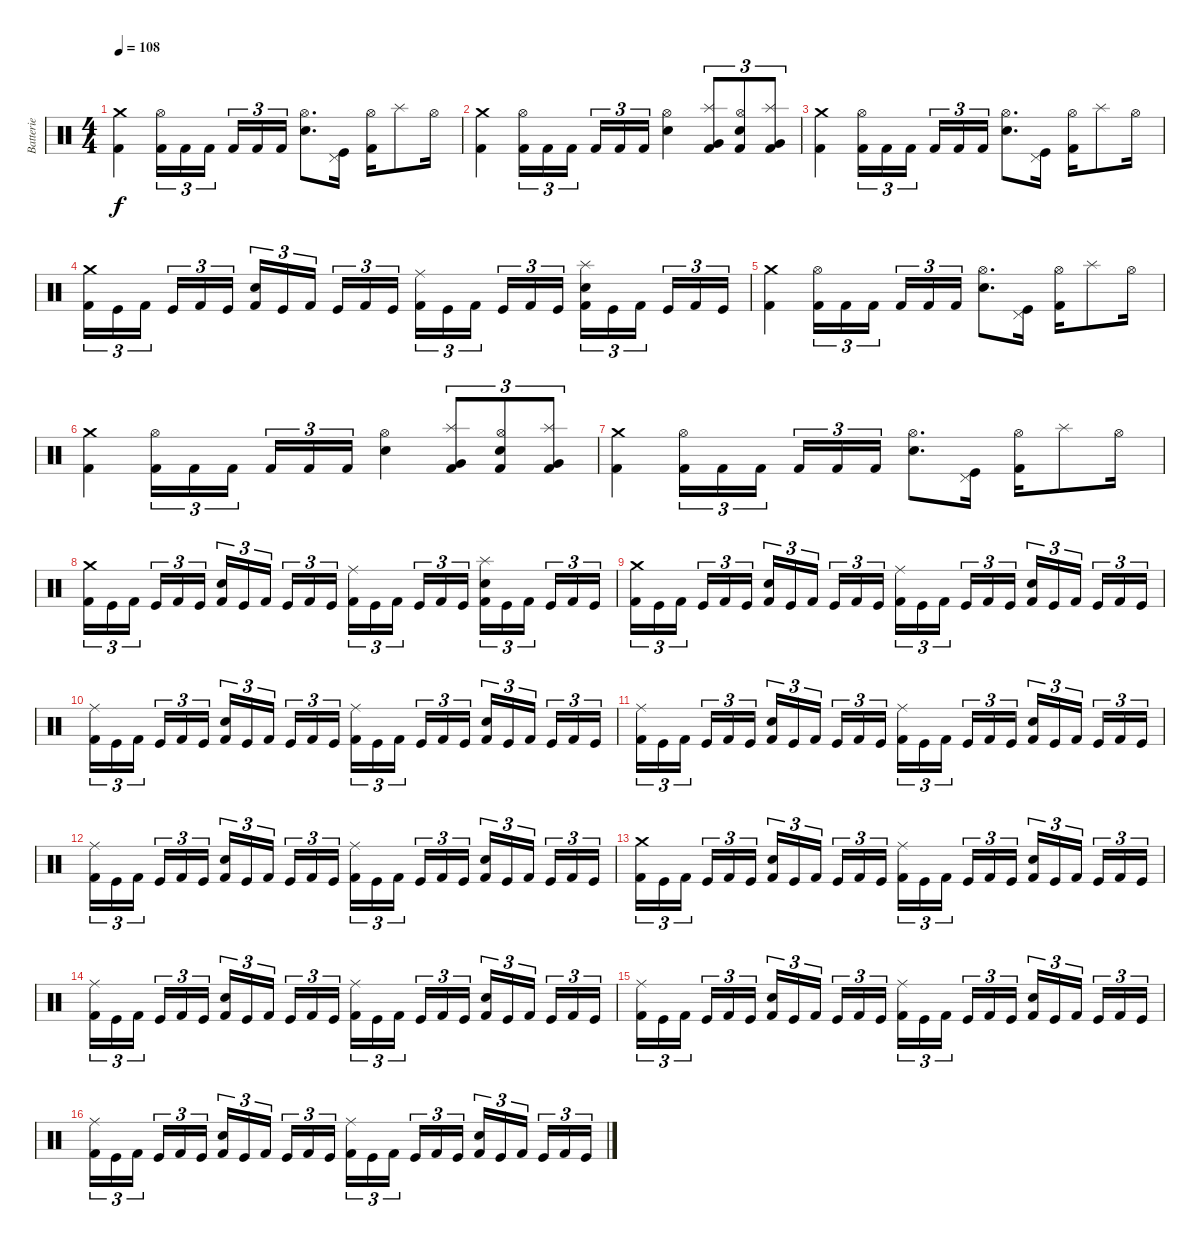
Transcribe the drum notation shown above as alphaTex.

\track ("Batterie" "Batterie") {instrument percussion}
\staff {score}
\articulation defaults
\ts (4 4)
\tempo 108
\clef neutral
\ks c
("Crash medium (hit)" "Kick (hit) 2").4{dy f} ("Hi-Hat (open)" "Kick (hit) 2").16{tu (3 2)} "Kick (hit) 2".16{tu (3 2)} "Kick (hit) 2".16{tu (3 2) beam splitsecondary} "Kick (hit) 2".16{tu (3 2)} "Kick (hit) 2".16{tu (3 2)} "Kick (hit) 2".16{tu (3 2)} ("Hi-Hat (open)" "Snare (hit) 2").8{d} ("Pedal Hi-Hat (hit)" "Kick (hit)").16 ("Hi-Hat (open)" "Kick (hit) 2").16 "Splash (hit)".8 "Hi-Hat (open)".16 |
("Crash medium (hit)" "Kick (hit) 2").4 ("Hi-Hat (open)" "Kick (hit) 2").16{tu (3 2)} "Kick (hit) 2".16{tu (3 2)} "Kick (hit) 2".16{tu (3 2) beam splitsecondary} "Kick (hit) 2".16{tu (3 2)} "Kick (hit) 2".16{tu (3 2)} "Kick (hit) 2".16{tu (3 2)} ("Hi-Hat (open)" "Snare (hit) 2").4 ("Splash (hit)" "Very Low Tom (hit)" "Kick (hit) 2").8{tu (3 2)} ("Hi-Hat (open)" "Electric Snare (hit)" "Kick (hit) 2").8{tu (3 2)} ("Splash (hit)" "Very Low Tom (hit)" "Kick (hit) 2").8{tu (3 2)} |
("Crash medium (hit)" "Kick (hit) 2").4 ("Hi-Hat (open)" "Kick (hit) 2").16{tu (3 2)} "Kick (hit) 2".16{tu (3 2)} "Kick (hit) 2".16{tu (3 2) beam splitsecondary} "Kick (hit) 2".16{tu (3 2)} "Kick (hit) 2".16{tu (3 2)} "Kick (hit) 2".16{tu (3 2)} ("Hi-Hat (open)" "Snare (hit) 2").8{d} ("Pedal Hi-Hat (hit)" "Kick (hit)").16 ("Hi-Hat (open)" "Kick (hit) 2").16 "Splash (hit)".8 "Hi-Hat (open)".16 |
("Crash medium (hit)" "Kick (hit) 2").16{tu (3 2)} "Kick (hit)".16{tu (3 2)} "Kick (hit) 2".16{tu (3 2) beam splitsecondary} "Kick (hit)".16{tu (3 2)} "Kick (hit) 2".16{tu (3 2)} "Kick (hit)".16{tu (3 2)} ("Snare (hit) 2" "Kick (hit) 2").16{tu (3 2)} "Kick (hit)".16{tu (3 2)} "Kick (hit) 2".16{tu (3 2) beam splitsecondary} "Kick (hit)".16{tu (3 2)} "Kick (hit) 2".16{tu (3 2)} "Kick (hit)".16{tu (3 2)} ("Ride (middle)" "Kick (hit) 2").16{tu (3 2)} "Kick (hit)".16{tu (3 2)} "Kick (hit) 2".16{tu (3 2) beam splitsecondary} "Kick (hit)".16{tu (3 2)} "Kick (hit) 2".16{tu (3 2)} "Kick (hit)".16{tu (3 2)} ("Splash (hit)" "Snare (hit) 2" "Kick (hit) 2").16{tu (3 2)} "Kick (hit)".16{tu (3 2)} "Kick (hit) 2".16{tu (3 2) beam splitsecondary} "Kick (hit)".16{tu (3 2)} "Kick (hit) 2".16{tu (3 2)} "Kick (hit)".16{tu (3 2)} |
("Crash medium (hit)" "Kick (hit) 2").4 ("Hi-Hat (open)" "Kick (hit) 2").16{tu (3 2)} "Kick (hit) 2".16{tu (3 2)} "Kick (hit) 2".16{tu (3 2) beam splitsecondary} "Kick (hit) 2".16{tu (3 2)} "Kick (hit) 2".16{tu (3 2)} "Kick (hit) 2".16{tu (3 2)} ("Hi-Hat (open)" "Snare (hit) 2").8{d} ("Pedal Hi-Hat (hit)" "Kick (hit)").16 ("Hi-Hat (open)" "Kick (hit) 2").16 "Splash (hit)".8 "Hi-Hat (open)".16 |
("Crash medium (hit)" "Kick (hit) 2").4 ("Hi-Hat (open)" "Kick (hit) 2").16{tu (3 2)} "Kick (hit) 2".16{tu (3 2)} "Kick (hit) 2".16{tu (3 2) beam splitsecondary} "Kick (hit) 2".16{tu (3 2)} "Kick (hit) 2".16{tu (3 2)} "Kick (hit) 2".16{tu (3 2)} ("Hi-Hat (open)" "Snare (hit) 2").4 ("Splash (hit)" "Very Low Tom (hit)" "Kick (hit) 2").8{tu (3 2)} ("Hi-Hat (open)" "Electric Snare (hit)" "Kick (hit) 2").8{tu (3 2)} ("Splash (hit)" "Very Low Tom (hit)" "Kick (hit) 2").8{tu (3 2)} |
("Crash medium (hit)" "Kick (hit) 2").4 ("Hi-Hat (open)" "Kick (hit) 2").16{tu (3 2)} "Kick (hit) 2".16{tu (3 2)} "Kick (hit) 2".16{tu (3 2) beam splitsecondary} "Kick (hit) 2".16{tu (3 2)} "Kick (hit) 2".16{tu (3 2)} "Kick (hit) 2".16{tu (3 2)} ("Hi-Hat (open)" "Snare (hit) 2").8{d} ("Pedal Hi-Hat (hit)" "Kick (hit)").16 ("Hi-Hat (open)" "Kick (hit) 2").16 "Splash (hit)".8 "Hi-Hat (open)".16 |
("Crash medium (hit)" "Kick (hit) 2").16{tu (3 2)} "Kick (hit)".16{tu (3 2)} "Kick (hit) 2".16{tu (3 2) beam splitsecondary} "Kick (hit)".16{tu (3 2)} "Kick (hit) 2".16{tu (3 2)} "Kick (hit)".16{tu (3 2)} ("Snare (hit) 2" "Kick (hit) 2").16{tu (3 2)} "Kick (hit)".16{tu (3 2)} "Kick (hit) 2".16{tu (3 2) beam splitsecondary} "Kick (hit)".16{tu (3 2)} "Kick (hit) 2".16{tu (3 2)} "Kick (hit)".16{tu (3 2)} ("Ride (middle)" "Kick (hit) 2").16{tu (3 2)} "Kick (hit)".16{tu (3 2)} "Kick (hit) 2".16{tu (3 2) beam splitsecondary} "Kick (hit)".16{tu (3 2)} "Kick (hit) 2".16{tu (3 2)} "Kick (hit)".16{tu (3 2)} ("Splash (hit)" "Snare (hit) 2" "Kick (hit) 2").16{tu (3 2)} "Kick (hit)".16{tu (3 2)} "Kick (hit) 2".16{tu (3 2) beam splitsecondary} "Kick (hit)".16{tu (3 2)} "Kick (hit) 2".16{tu (3 2)} "Kick (hit)".16{tu (3 2)} |
("Crash medium (hit)" "Kick (hit) 2").16{tu (3 2)} "Kick (hit)".16{tu (3 2)} "Kick (hit) 2".16{tu (3 2) beam splitsecondary} "Kick (hit)".16{tu (3 2)} "Kick (hit) 2".16{tu (3 2)} "Kick (hit)".16{tu (3 2)} ("Snare (hit) 2" "Kick (hit) 2").16{tu (3 2)} "Kick (hit)".16{tu (3 2)} "Kick (hit) 2".16{tu (3 2) beam splitsecondary} "Kick (hit)".16{tu (3 2)} "Kick (hit) 2".16{tu (3 2)} "Kick (hit)".16{tu (3 2)} ("Ride (middle)" "Kick (hit) 2").16{tu (3 2)} "Kick (hit)".16{tu (3 2)} "Kick (hit) 2".16{tu (3 2) beam splitsecondary} "Kick (hit)".16{tu (3 2)} "Kick (hit) 2".16{tu (3 2)} "Kick (hit)".16{tu (3 2)} ("Snare (hit) 2" "Kick (hit) 2").16{tu (3 2)} "Kick (hit)".16{tu (3 2)} "Kick (hit) 2".16{tu (3 2) beam splitsecondary} "Kick (hit)".16{tu (3 2)} "Kick (hit) 2".16{tu (3 2)} "Kick (hit)".16{tu (3 2)} |
("Ride (middle)" "Kick (hit) 2").16{tu (3 2)} "Kick (hit)".16{tu (3 2)} "Kick (hit) 2".16{tu (3 2) beam splitsecondary} "Kick (hit)".16{tu (3 2)} "Kick (hit) 2".16{tu (3 2)} "Kick (hit)".16{tu (3 2)} ("Snare (hit) 2" "Kick (hit) 2").16{tu (3 2)} "Kick (hit)".16{tu (3 2)} "Kick (hit) 2".16{tu (3 2) beam splitsecondary} "Kick (hit)".16{tu (3 2)} "Kick (hit) 2".16{tu (3 2)} "Kick (hit)".16{tu (3 2)} ("Ride (middle)" "Kick (hit) 2").16{tu (3 2)} "Kick (hit)".16{tu (3 2)} "Kick (hit) 2".16{tu (3 2) beam splitsecondary} "Kick (hit)".16{tu (3 2)} "Kick (hit) 2".16{tu (3 2)} "Kick (hit)".16{tu (3 2)} ("Snare (hit) 2" "Kick (hit) 2").16{tu (3 2)} "Kick (hit)".16{tu (3 2)} "Kick (hit) 2".16{tu (3 2) beam splitsecondary} "Kick (hit)".16{tu (3 2)} "Kick (hit) 2".16{tu (3 2)} "Kick (hit)".16{tu (3 2)} |
("Ride (middle)" "Kick (hit) 2").16{tu (3 2)} "Kick (hit)".16{tu (3 2)} "Kick (hit) 2".16{tu (3 2) beam splitsecondary} "Kick (hit)".16{tu (3 2)} "Kick (hit) 2".16{tu (3 2)} "Kick (hit)".16{tu (3 2)} ("Snare (hit) 2" "Kick (hit) 2").16{tu (3 2)} "Kick (hit)".16{tu (3 2)} "Kick (hit) 2".16{tu (3 2) beam splitsecondary} "Kick (hit)".16{tu (3 2)} "Kick (hit) 2".16{tu (3 2)} "Kick (hit)".16{tu (3 2)} ("Ride (middle)" "Kick (hit) 2").16{tu (3 2)} "Kick (hit)".16{tu (3 2)} "Kick (hit) 2".16{tu (3 2) beam splitsecondary} "Kick (hit)".16{tu (3 2)} "Kick (hit) 2".16{tu (3 2)} "Kick (hit)".16{tu (3 2)} ("Snare (hit) 2" "Kick (hit) 2").16{tu (3 2)} "Kick (hit)".16{tu (3 2)} "Kick (hit) 2".16{tu (3 2) beam splitsecondary} "Kick (hit)".16{tu (3 2)} "Kick (hit) 2".16{tu (3 2)} "Kick (hit)".16{tu (3 2)} |
("Ride (middle)" "Kick (hit) 2").16{tu (3 2)} "Kick (hit)".16{tu (3 2)} "Kick (hit) 2".16{tu (3 2) beam splitsecondary} "Kick (hit)".16{tu (3 2)} "Kick (hit) 2".16{tu (3 2)} "Kick (hit)".16{tu (3 2)} ("Snare (hit) 2" "Kick (hit) 2").16{tu (3 2)} "Kick (hit)".16{tu (3 2)} "Kick (hit) 2".16{tu (3 2) beam splitsecondary} "Kick (hit)".16{tu (3 2)} "Kick (hit) 2".16{tu (3 2)} "Kick (hit)".16{tu (3 2)} ("Ride (middle)" "Kick (hit) 2").16{tu (3 2)} "Kick (hit)".16{tu (3 2)} "Kick (hit) 2".16{tu (3 2) beam splitsecondary} "Kick (hit)".16{tu (3 2)} "Kick (hit) 2".16{tu (3 2)} "Kick (hit)".16{tu (3 2)} ("Snare (hit) 2" "Kick (hit) 2").16{tu (3 2)} "Kick (hit)".16{tu (3 2)} "Kick (hit) 2".16{tu (3 2) beam splitsecondary} "Kick (hit)".16{tu (3 2)} "Kick (hit) 2".16{tu (3 2)} "Kick (hit)".16{tu (3 2)} |
("Crash medium (hit)" "Kick (hit) 2").16{tu (3 2)} "Kick (hit)".16{tu (3 2)} "Kick (hit) 2".16{tu (3 2) beam splitsecondary} "Kick (hit)".16{tu (3 2)} "Kick (hit) 2".16{tu (3 2)} "Kick (hit)".16{tu (3 2)} ("Snare (hit) 2" "Kick (hit) 2").16{tu (3 2)} "Kick (hit)".16{tu (3 2)} "Kick (hit) 2".16{tu (3 2) beam splitsecondary} "Kick (hit)".16{tu (3 2)} "Kick (hit) 2".16{tu (3 2)} "Kick (hit)".16{tu (3 2)} ("Ride (middle)" "Kick (hit) 2").16{tu (3 2)} "Kick (hit)".16{tu (3 2)} "Kick (hit) 2".16{tu (3 2) beam splitsecondary} "Kick (hit)".16{tu (3 2)} "Kick (hit) 2".16{tu (3 2)} "Kick (hit)".16{tu (3 2)} ("Snare (hit) 2" "Kick (hit) 2").16{tu (3 2)} "Kick (hit)".16{tu (3 2)} "Kick (hit) 2".16{tu (3 2) beam splitsecondary} "Kick (hit)".16{tu (3 2)} "Kick (hit) 2".16{tu (3 2)} "Kick (hit)".16{tu (3 2)} |
("Ride (middle)" "Kick (hit) 2").16{tu (3 2)} "Kick (hit)".16{tu (3 2)} "Kick (hit) 2".16{tu (3 2) beam splitsecondary} "Kick (hit)".16{tu (3 2)} "Kick (hit) 2".16{tu (3 2)} "Kick (hit)".16{tu (3 2)} ("Snare (hit) 2" "Kick (hit) 2").16{tu (3 2)} "Kick (hit)".16{tu (3 2)} "Kick (hit) 2".16{tu (3 2) beam splitsecondary} "Kick (hit)".16{tu (3 2)} "Kick (hit) 2".16{tu (3 2)} "Kick (hit)".16{tu (3 2)} ("Ride (middle)" "Kick (hit) 2").16{tu (3 2)} "Kick (hit)".16{tu (3 2)} "Kick (hit) 2".16{tu (3 2) beam splitsecondary} "Kick (hit)".16{tu (3 2)} "Kick (hit) 2".16{tu (3 2)} "Kick (hit)".16{tu (3 2)} ("Snare (hit) 2" "Kick (hit) 2").16{tu (3 2)} "Kick (hit)".16{tu (3 2)} "Kick (hit) 2".16{tu (3 2) beam splitsecondary} "Kick (hit)".16{tu (3 2)} "Kick (hit) 2".16{tu (3 2)} "Kick (hit)".16{tu (3 2)} |
("Ride (middle)" "Kick (hit) 2").16{tu (3 2)} "Kick (hit)".16{tu (3 2)} "Kick (hit) 2".16{tu (3 2) beam splitsecondary} "Kick (hit)".16{tu (3 2)} "Kick (hit) 2".16{tu (3 2)} "Kick (hit)".16{tu (3 2)} ("Snare (hit) 2" "Kick (hit) 2").16{tu (3 2)} "Kick (hit)".16{tu (3 2)} "Kick (hit) 2".16{tu (3 2) beam splitsecondary} "Kick (hit)".16{tu (3 2)} "Kick (hit) 2".16{tu (3 2)} "Kick (hit)".16{tu (3 2)} ("Ride (middle)" "Kick (hit) 2").16{tu (3 2)} "Kick (hit)".16{tu (3 2)} "Kick (hit) 2".16{tu (3 2) beam splitsecondary} "Kick (hit)".16{tu (3 2)} "Kick (hit) 2".16{tu (3 2)} "Kick (hit)".16{tu (3 2)} ("Snare (hit) 2" "Kick (hit) 2").16{tu (3 2)} "Kick (hit)".16{tu (3 2)} "Kick (hit) 2".16{tu (3 2) beam splitsecondary} "Kick (hit)".16{tu (3 2)} "Kick (hit) 2".16{tu (3 2)} "Kick (hit)".16{tu (3 2)} |
("Ride (middle)" "Kick (hit) 2").16{tu (3 2)} "Kick (hit)".16{tu (3 2)} "Kick (hit) 2".16{tu (3 2) beam splitsecondary} "Kick (hit)".16{tu (3 2)} "Kick (hit) 2".16{tu (3 2)} "Kick (hit)".16{tu (3 2)} ("Snare (hit) 2" "Kick (hit) 2").16{tu (3 2)} "Kick (hit)".16{tu (3 2)} "Kick (hit) 2".16{tu (3 2) beam splitsecondary} "Kick (hit)".16{tu (3 2)} "Kick (hit) 2".16{tu (3 2)} "Kick (hit)".16{tu (3 2)} ("Ride (middle)" "Kick (hit) 2").16{tu (3 2)} "Kick (hit)".16{tu (3 2)} "Kick (hit) 2".16{tu (3 2) beam splitsecondary} "Kick (hit)".16{tu (3 2)} "Kick (hit) 2".16{tu (3 2)} "Kick (hit)".16{tu (3 2)} ("Snare (hit) 2" "Kick (hit) 2").16{tu (3 2)} "Kick (hit)".16{tu (3 2)} "Kick (hit) 2".16{tu (3 2) beam splitsecondary} "Kick (hit)".16{tu (3 2)} "Kick (hit) 2".16{tu (3 2)} "Kick (hit)".16{tu (3 2)}
